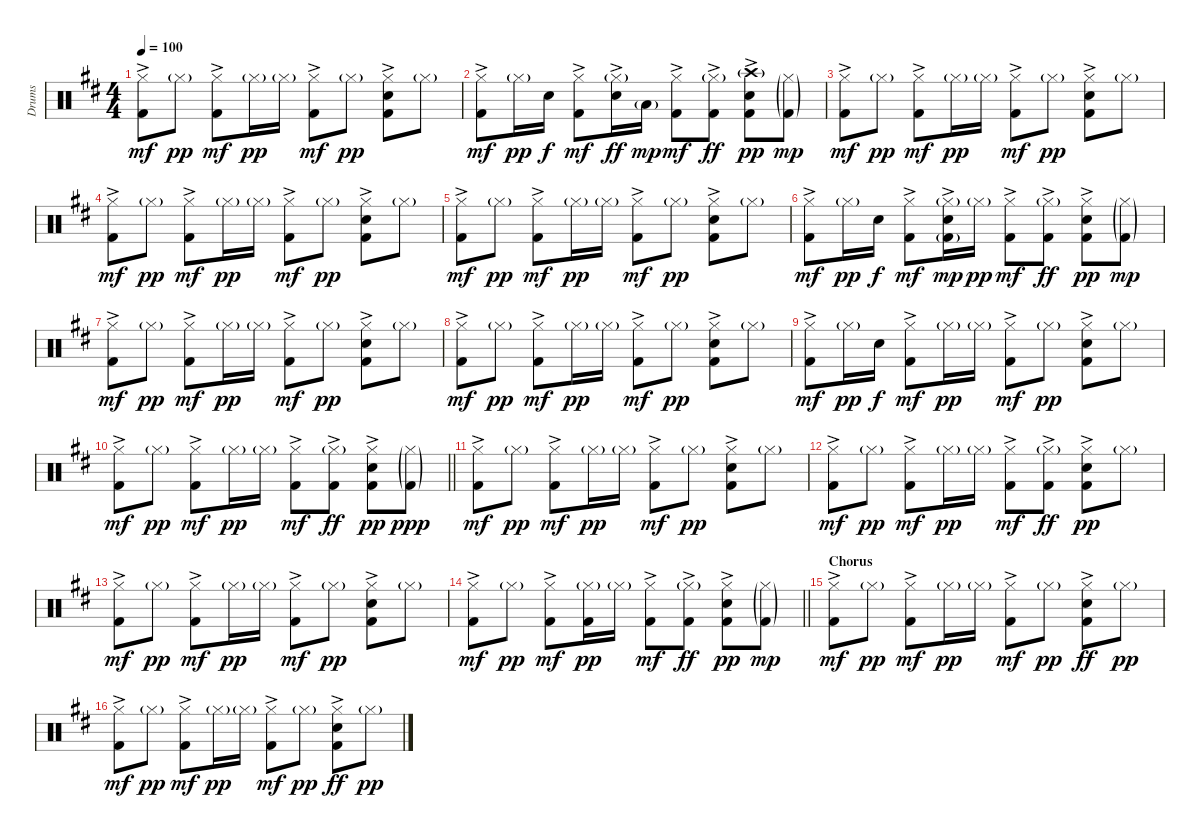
\track ("Drums" "Drums") {instrument percussion}
\staff {score}
\articulation defaults
\ts (4 4)
\tempo 100
\clef neutral
\ks d
("Hi-Hat (closed)" "Kick (hit) 2"{ac}).8{dy mf} "Hi-Hat (closed)"{g}.8{dy pp} ("Hi-Hat (closed)"{ac} "Kick (hit) 2"{ac}).8{dy mf} "Hi-Hat (closed)"{g}.16{dy pp} "Hi-Hat (closed)"{g}.16 ("Hi-Hat (closed)" "Kick (hit) 2"{ac}).8{dy mf} "Hi-Hat (closed)"{g}.8{dy pp} ("Hi-Hat (closed)"{ac} "Snare (hit) 2"{ac} "Kick (hit) 2").8 "Hi-Hat (closed)"{g}.8 |
("Hi-Hat (closed)" "Kick (hit) 2"{ac}).8{dy mf} "Hi-Hat (closed)"{g}.16{dy pp} "Snare (hit) 2".16{dy f} ("Hi-Hat (closed)"{ac} "Kick (hit) 2"{ac}).8{dy mf} ("Hi-Hat (closed)"{g} "Snare (hit) 2"{ac}).16{dy ff} "Low Tom (hit)"{g}.16{dy mp} ("Hi-Hat (closed)" "Kick (hit) 2"{ac}).8{dy mf} ("Hi-Hat (closed)"{g} "Kick (hit) 2"{ac}).8{dy ff} ("Crash high (hit)"{g} "Snare (hit) 2"{ac} "Kick (hit) 2").8{dy pp} ("Hi-Hat (closed)"{g} "Kick (hit) 2"{g}).8{dy mp} |
("Hi-Hat (closed)" "Kick (hit) 2"{ac}).8{dy mf} "Hi-Hat (closed)"{g}.8{dy pp} ("Hi-Hat (closed)"{ac} "Kick (hit) 2"{ac}).8{dy mf} "Hi-Hat (closed)"{g}.16{dy pp} "Hi-Hat (closed)"{g}.16 ("Hi-Hat (closed)" "Kick (hit) 2"{ac}).8{dy mf} "Hi-Hat (closed)"{g}.8{dy pp} ("Hi-Hat (closed)"{ac} "Snare (hit) 2"{ac} "Kick (hit) 2").8 "Hi-Hat (closed)"{g}.8 |
("Hi-Hat (closed)" "Kick (hit) 2"{ac}).8{dy mf} "Hi-Hat (closed)"{g}.8{dy pp} ("Hi-Hat (closed)"{ac} "Kick (hit) 2"{ac}).8{dy mf} "Hi-Hat (closed)"{g}.16{dy pp} "Hi-Hat (closed)"{g}.16 ("Hi-Hat (closed)" "Kick (hit) 2"{ac}).8{dy mf} "Hi-Hat (closed)"{g}.8{dy pp} ("Hi-Hat (closed)"{ac} "Snare (hit) 2"{ac} "Kick (hit) 2").8 "Hi-Hat (closed)"{g}.8 |
("Hi-Hat (closed)" "Kick (hit) 2"{ac}).8{dy mf} "Hi-Hat (closed)"{g}.8{dy pp} ("Hi-Hat (closed)"{ac} "Kick (hit) 2"{ac}).8{dy mf} "Hi-Hat (closed)"{g}.16{dy pp} "Hi-Hat (closed)"{g}.16 ("Hi-Hat (closed)" "Kick (hit) 2"{ac}).8{dy mf} "Hi-Hat (closed)"{g}.8{dy pp} ("Hi-Hat (closed)"{ac} "Snare (hit) 2"{ac} "Kick (hit) 2").8 "Hi-Hat (closed)"{g}.8 |
("Hi-Hat (closed)" "Kick (hit) 2"{ac}).8{dy mf} "Hi-Hat (closed)"{g}.16{dy pp} "Snare (hit) 2".16{dy f} ("Hi-Hat (closed)"{ac} "Kick (hit) 2"{ac}).8{dy mf} ("Hi-Hat (closed)"{g} "Snare (hit) 2"{ac} "Kick (hit) 2"{g}).16{dy mp} "Hi-Hat (closed)"{g}.16{dy pp} ("Hi-Hat (closed)" "Kick (hit) 2"{ac}).8{dy mf} ("Hi-Hat (closed)"{g} "Kick (hit) 2"{ac}).8{dy ff} ("Hi-Hat (closed)"{ac} "Snare (hit) 2"{ac} "Kick (hit) 2").8{dy pp} ("Hi-Hat (closed)"{g} "Kick (hit) 2"{g}).8{dy mp} |
("Hi-Hat (closed)" "Kick (hit) 2"{ac}).8{dy mf} "Hi-Hat (closed)"{g}.8{dy pp} ("Hi-Hat (closed)"{ac} "Kick (hit) 2"{ac}).8{dy mf} "Hi-Hat (closed)"{g}.16{dy pp} "Hi-Hat (closed)"{g}.16 ("Hi-Hat (closed)" "Kick (hit) 2"{ac}).8{dy mf} "Hi-Hat (closed)"{g}.8{dy pp} ("Hi-Hat (closed)"{ac} "Snare (hit) 2"{ac} "Kick (hit) 2").8 "Hi-Hat (closed)"{g}.8 |
("Hi-Hat (closed)" "Kick (hit) 2"{ac}).8{dy mf} "Hi-Hat (closed)"{g}.8{dy pp} ("Hi-Hat (closed)"{ac} "Kick (hit) 2"{ac}).8{dy mf} "Hi-Hat (closed)"{g}.16{dy pp} "Hi-Hat (closed)"{g}.16 ("Hi-Hat (closed)" "Kick (hit) 2"{ac}).8{dy mf} "Hi-Hat (closed)"{g}.8{dy pp} ("Hi-Hat (closed)"{ac} "Snare (hit) 2"{ac} "Kick (hit) 2").8 "Hi-Hat (closed)"{g}.8 |
("Hi-Hat (closed)" "Kick (hit) 2"{ac}).8{dy mf} "Hi-Hat (closed)"{g}.16{dy pp} "Snare (hit) 2".16{dy f} ("Hi-Hat (closed)"{ac} "Kick (hit) 2"{ac}).8{dy mf} "Hi-Hat (closed)"{g}.16{dy pp} "Hi-Hat (closed)"{g}.16 ("Hi-Hat (closed)" "Kick (hit) 2"{ac}).8{dy mf} "Hi-Hat (closed)"{g}.8{dy pp} ("Hi-Hat (closed)"{ac} "Snare (hit) 2"{ac} "Kick (hit) 2").8 "Hi-Hat (closed)"{g}.8 |
\barLineRight lightlight
("Hi-Hat (closed)" "Kick (hit) 2"{ac}).8{dy mf} "Hi-Hat (closed)"{g}.8{dy pp} ("Hi-Hat (closed)"{ac} "Kick (hit) 2"{ac}).8{dy mf} "Hi-Hat (closed)"{g}.16{dy pp} "Hi-Hat (closed)"{g}.16 ("Hi-Hat (closed)" "Kick (hit) 2"{ac}).8{dy mf} ("Hi-Hat (closed)"{g} "Kick (hit) 2"{ac}).8{dy ff} ("Hi-Hat (closed)"{ac} "Snare (hit) 2"{ac} "Kick (hit) 2").8{dy pp} ("Hi-Hat (closed)"{g} "Kick (hit) 2"{g}).8{dy ppp} |
("Hi-Hat (closed)" "Kick (hit) 2"{ac}).8{dy mf} "Hi-Hat (closed)"{g}.8{dy pp} ("Hi-Hat (closed)"{ac} "Kick (hit) 2"{ac}).8{dy mf} "Hi-Hat (closed)"{g}.16{dy pp} "Hi-Hat (closed)"{g}.16 ("Hi-Hat (closed)" "Kick (hit) 2"{ac}).8{dy mf} "Hi-Hat (closed)"{g}.8{dy pp} ("Hi-Hat (closed)"{ac} "Snare (hit) 2"{ac} "Kick (hit) 2").8 "Hi-Hat (closed)"{g}.8 |
("Hi-Hat (closed)" "Kick (hit) 2"{ac}).8{dy mf} "Hi-Hat (closed)"{g}.8{dy pp} ("Hi-Hat (closed)"{ac} "Kick (hit) 2"{ac}).8{dy mf} "Hi-Hat (closed)"{g}.16{dy pp} "Hi-Hat (closed)"{g}.16 ("Hi-Hat (closed)" "Kick (hit) 2"{ac}).8{dy mf} ("Hi-Hat (closed)"{g} "Kick (hit) 2"{ac}).8{dy ff} ("Hi-Hat (closed)"{ac} "Snare (hit) 2"{ac} "Kick (hit) 2").8{dy pp} "Hi-Hat (closed)"{g}.8 |
("Hi-Hat (closed)" "Kick (hit) 2"{ac}).8{dy mf} "Hi-Hat (closed)"{g}.8{dy pp} ("Hi-Hat (closed)"{ac} "Kick (hit) 2"{ac}).8{dy mf} "Hi-Hat (closed)"{g}.16{dy pp} "Hi-Hat (closed)"{g}.16 ("Hi-Hat (closed)" "Kick (hit) 2"{ac}).8{dy mf} "Hi-Hat (closed)"{g}.8{dy pp} ("Hi-Hat (closed)"{ac} "Snare (hit) 2"{ac} "Kick (hit) 2").8 "Hi-Hat (closed)"{g}.8 |
\barLineRight lightlight
("Hi-Hat (closed)" "Kick (hit) 2"{ac}).8{dy mf} "Hi-Hat (closed)"{g}.8{dy pp} ("Hi-Hat (closed)"{ac} "Kick (hit) 2"{ac}).8{dy mf} ("Hi-Hat (closed)"{g} "Kick (hit) 2").16{dy pp} "Hi-Hat (closed)"{g}.16 ("Hi-Hat (closed)" "Kick (hit) 2"{ac}).8{dy mf} ("Hi-Hat (closed)"{g} "Kick (hit) 2"{ac}).8{dy ff} ("Hi-Hat (closed)"{ac} "Snare (hit) 2"{ac} "Kick (hit) 2").8{dy pp} ("Hi-Hat (closed)"{g} "Kick (hit) 2"{g}).8{dy mp} |
\section ("" "Chorus")
("Hi-Hat (closed)" "Kick (hit) 2"{ac}).8{dy mf} "Hi-Hat (closed)"{g}.8{dy pp} ("Hi-Hat (closed)"{ac} "Kick (hit) 2"{ac}).8{dy mf} "Hi-Hat (closed)"{g}.16{dy pp} "Hi-Hat (closed)"{g}.16 ("Hi-Hat (closed)" "Kick (hit) 2"{ac}).8{dy mf} "Hi-Hat (closed)"{g}.8{dy pp} ("Hi-Hat (closed)"{ac} "Snare (hit) 2"{ac} "Kick (hit) 2"{ac}).8{dy ff} "Hi-Hat (closed)"{g}.8{dy pp} |
("Hi-Hat (closed)" "Kick (hit) 2"{ac}).8{dy mf} "Hi-Hat (closed)"{g}.8{dy pp} ("Hi-Hat (closed)"{ac} "Kick (hit) 2"{ac}).8{dy mf} "Hi-Hat (closed)"{g}.16{dy pp} "Hi-Hat (closed)"{g}.16 ("Hi-Hat (closed)" "Kick (hit) 2"{ac}).8{dy mf} "Hi-Hat (closed)"{g}.8{dy pp} ("Hi-Hat (closed)"{ac} "Snare (hit) 2"{ac} "Kick (hit) 2"{ac}).8{dy ff} "Hi-Hat (closed)"{g}.8{dy pp}
